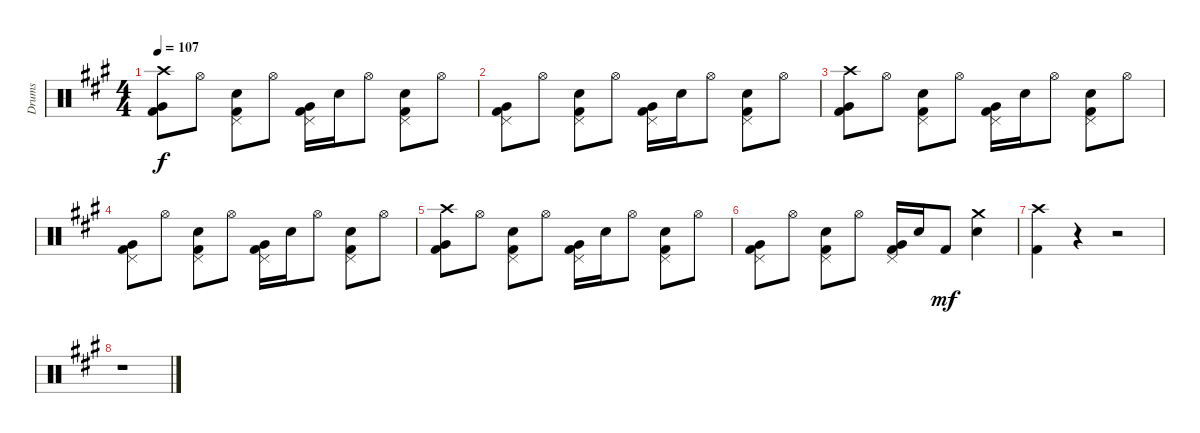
\track ("Drums" "Drums") {instrument percussion}
\staff {score}
\articulation defaults
\ts (4 4)
\tempo 107
\clef neutral
\ks f#minor
("Crash high (hit)" "Very Low Tom (hit)" "Kick (hit) 2").8{dy f} "Hi-Hat (open)".8 ("Electric Snare (hit)" "Pedal Hi-Hat (hit)" "Kick (hit) 2").8 "Hi-Hat (open)".8 ("Very Low Tom (hit)" "Pedal Hi-Hat (hit)" "Kick (hit) 2").16 "Electric Snare (hit)".16 "Hi-Hat (open)".8 ("Electric Snare (hit)" "Pedal Hi-Hat (hit)" "Kick (hit) 2").8 "Hi-Hat (open)".8 |
("Very Low Tom (hit)" "Pedal Hi-Hat (hit)" "Kick (hit) 2").8 "Hi-Hat (open)".8 ("Electric Snare (hit)" "Pedal Hi-Hat (hit)" "Kick (hit) 2").8 "Hi-Hat (open)".8 ("Very Low Tom (hit)" "Pedal Hi-Hat (hit)" "Kick (hit) 2").16 "Electric Snare (hit)".16 "Hi-Hat (open)".8 ("Electric Snare (hit)" "Pedal Hi-Hat (hit)" "Kick (hit) 2").8 "Hi-Hat (open)".8 |
("Crash high (hit)" "Very Low Tom (hit)" "Kick (hit) 2").8 "Hi-Hat (open)".8 ("Electric Snare (hit)" "Pedal Hi-Hat (hit)" "Kick (hit) 2").8 "Hi-Hat (open)".8 ("Very Low Tom (hit)" "Pedal Hi-Hat (hit)" "Kick (hit) 2").16 "Electric Snare (hit)".16 "Hi-Hat (open)".8 ("Electric Snare (hit)" "Pedal Hi-Hat (hit)" "Kick (hit) 2").8 "Hi-Hat (open)".8 |
("Very Low Tom (hit)" "Pedal Hi-Hat (hit)" "Kick (hit) 2").8 "Hi-Hat (open)".8 ("Electric Snare (hit)" "Pedal Hi-Hat (hit)" "Kick (hit) 2").8 "Hi-Hat (open)".8 ("Very Low Tom (hit)" "Pedal Hi-Hat (hit)" "Kick (hit) 2").16 "Electric Snare (hit)".16 "Hi-Hat (open)".8 ("Electric Snare (hit)" "Pedal Hi-Hat (hit)" "Kick (hit) 2").8 "Hi-Hat (open)".8 |
("Crash high (hit)" "Very Low Tom (hit)" "Kick (hit) 2").8 "Hi-Hat (open)".8 ("Electric Snare (hit)" "Pedal Hi-Hat (hit)" "Kick (hit) 2").8 "Hi-Hat (open)".8 ("Very Low Tom (hit)" "Pedal Hi-Hat (hit)" "Kick (hit) 2").16 "Electric Snare (hit)".16 "Hi-Hat (open)".8 ("Electric Snare (hit)" "Pedal Hi-Hat (hit)" "Kick (hit) 2").8 "Hi-Hat (open)".8 |
("Very Low Tom (hit)" "Pedal Hi-Hat (hit)" "Kick (hit) 2").8 "Hi-Hat (open)".8 ("Electric Snare (hit)" "Pedal Hi-Hat (hit)" "Kick (hit) 2").8 "Hi-Hat (open)".8 ("Very Low Tom (hit)" "Pedal Hi-Hat (hit)" "Kick (hit) 2").16 "Electric Snare (hit)".16 "Kick (hit) 2".8{dy mf} ("Crash medium (hit)" "Electric Snare (hit)").4 |
("Crash high (hit)" "Kick (hit) 2").4 r.4 r.2 |
r.1
